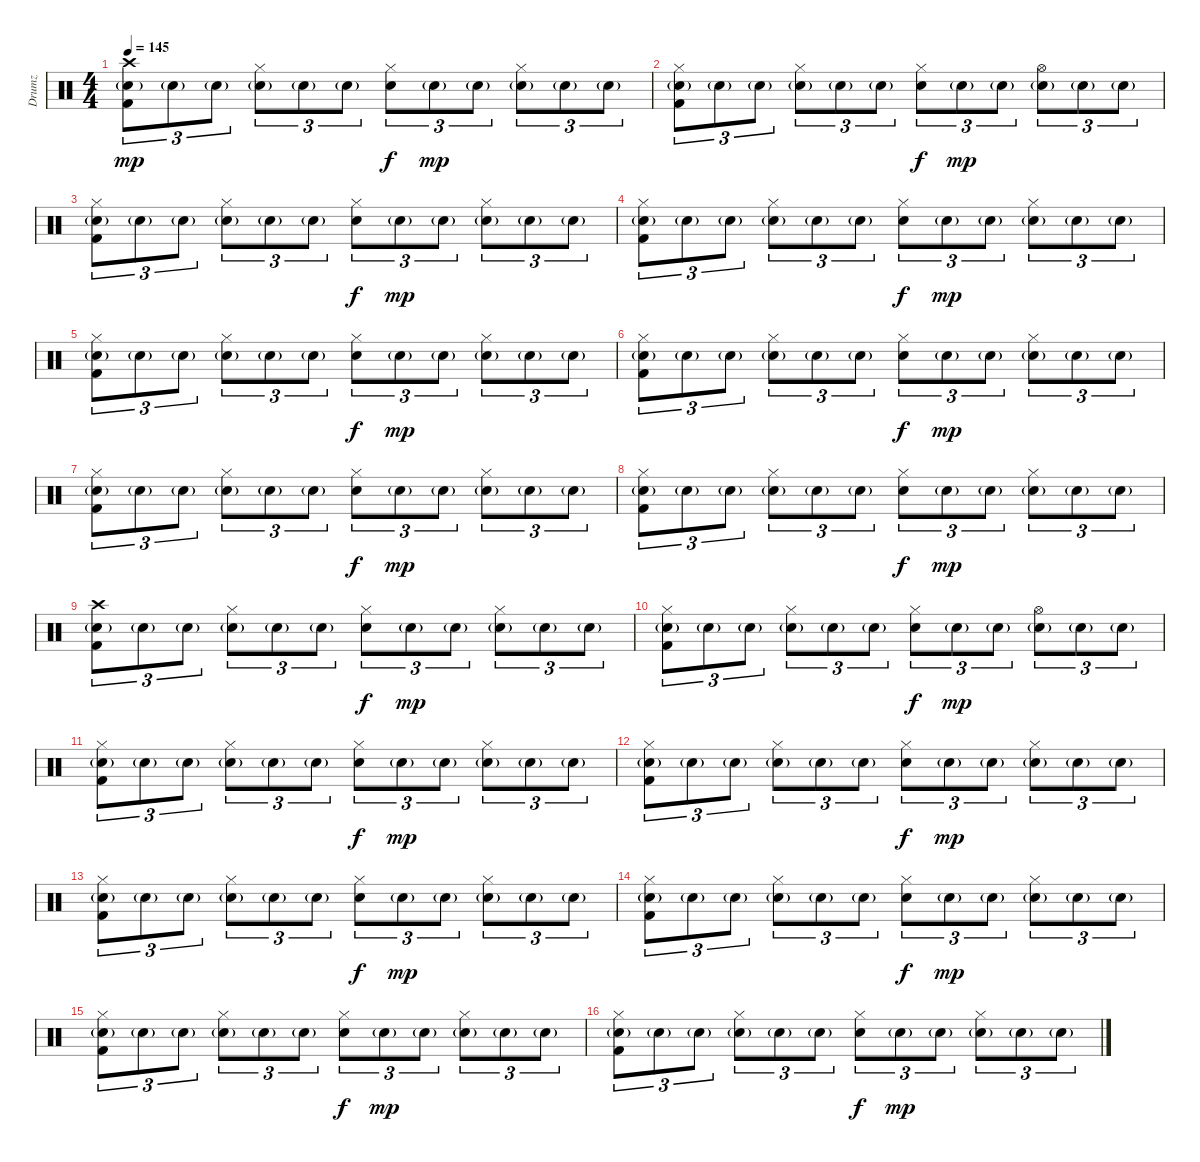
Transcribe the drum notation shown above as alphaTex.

\track ("Drumz" "Drumz") {instrument percussion}
\staff {score}
\articulation defaults
\ts (4 4)
\tempo 145
\clef neutral
\ks c
("Crash high (hit)" "Electric Snare (hit)"{g} "Kick (hit) 2").8{tu (3 2) dy mp} "Electric Snare (hit)"{g}.8{tu (3 2)} "Electric Snare (hit)"{g}.8{tu (3 2)} ("Hi-Hat (closed)" "Electric Snare (hit)"{g}).8{tu (3 2)} "Electric Snare (hit)"{g}.8{tu (3 2)} "Electric Snare (hit)"{g}.8{tu (3 2)} ("Hi-Hat (closed)" "Electric Snare (hit)").8{tu (3 2) dy f} "Electric Snare (hit)"{g}.8{tu (3 2) dy mp} "Electric Snare (hit)"{g}.8{tu (3 2)} ("Hi-Hat (closed)" "Electric Snare (hit)"{g}).8{tu (3 2)} "Electric Snare (hit)"{g}.8{tu (3 2)} "Electric Snare (hit)"{g}.8{tu (3 2)} |
("Hi-Hat (closed)" "Electric Snare (hit)"{g} "Kick (hit) 2").8{tu (3 2)} "Electric Snare (hit)"{g}.8{tu (3 2)} "Electric Snare (hit)"{g}.8{tu (3 2)} ("Hi-Hat (closed)" "Electric Snare (hit)"{g}).8{tu (3 2)} "Electric Snare (hit)"{g}.8{tu (3 2)} "Electric Snare (hit)"{g}.8{tu (3 2)} ("Hi-Hat (closed)" "Electric Snare (hit)").8{tu (3 2) dy f} "Electric Snare (hit)"{g}.8{tu (3 2) dy mp} "Electric Snare (hit)"{g}.8{tu (3 2)} ("Hi-Hat (open)" "Electric Snare (hit)"{g}).8{tu (3 2)} "Electric Snare (hit)"{g}.8{tu (3 2)} "Electric Snare (hit)"{g}.8{tu (3 2)} |
("Hi-Hat (closed)" "Electric Snare (hit)"{g} "Kick (hit) 2").8{tu (3 2)} "Electric Snare (hit)"{g}.8{tu (3 2)} "Electric Snare (hit)"{g}.8{tu (3 2)} ("Hi-Hat (closed)" "Electric Snare (hit)"{g}).8{tu (3 2)} "Electric Snare (hit)"{g}.8{tu (3 2)} "Electric Snare (hit)"{g}.8{tu (3 2)} ("Hi-Hat (closed)" "Electric Snare (hit)").8{tu (3 2) dy f} "Electric Snare (hit)"{g}.8{tu (3 2) dy mp} "Electric Snare (hit)"{g}.8{tu (3 2)} ("Hi-Hat (closed)" "Electric Snare (hit)"{g}).8{tu (3 2)} "Electric Snare (hit)"{g}.8{tu (3 2)} "Electric Snare (hit)"{g}.8{tu (3 2)} |
("Hi-Hat (closed)" "Electric Snare (hit)"{g} "Kick (hit) 2").8{tu (3 2)} "Electric Snare (hit)"{g}.8{tu (3 2)} "Electric Snare (hit)"{g}.8{tu (3 2)} ("Hi-Hat (closed)" "Electric Snare (hit)"{g}).8{tu (3 2)} "Electric Snare (hit)"{g}.8{tu (3 2)} "Electric Snare (hit)"{g}.8{tu (3 2)} ("Hi-Hat (closed)" "Electric Snare (hit)").8{tu (3 2) dy f} "Electric Snare (hit)"{g}.8{tu (3 2) dy mp} "Electric Snare (hit)"{g}.8{tu (3 2)} ("Hi-Hat (closed)" "Electric Snare (hit)"{g}).8{tu (3 2)} "Electric Snare (hit)"{g}.8{tu (3 2)} "Electric Snare (hit)"{g}.8{tu (3 2)} |
("Hi-Hat (closed)" "Electric Snare (hit)"{g} "Kick (hit) 2").8{tu (3 2)} "Electric Snare (hit)"{g}.8{tu (3 2)} "Electric Snare (hit)"{g}.8{tu (3 2)} ("Hi-Hat (closed)" "Electric Snare (hit)"{g}).8{tu (3 2)} "Electric Snare (hit)"{g}.8{tu (3 2)} "Electric Snare (hit)"{g}.8{tu (3 2)} ("Hi-Hat (closed)" "Electric Snare (hit)").8{tu (3 2) dy f} "Electric Snare (hit)"{g}.8{tu (3 2) dy mp} "Electric Snare (hit)"{g}.8{tu (3 2)} ("Hi-Hat (closed)" "Electric Snare (hit)"{g}).8{tu (3 2)} "Electric Snare (hit)"{g}.8{tu (3 2)} "Electric Snare (hit)"{g}.8{tu (3 2)} |
("Hi-Hat (closed)" "Electric Snare (hit)"{g} "Kick (hit) 2").8{tu (3 2)} "Electric Snare (hit)"{g}.8{tu (3 2)} "Electric Snare (hit)"{g}.8{tu (3 2)} ("Hi-Hat (closed)" "Electric Snare (hit)"{g}).8{tu (3 2)} "Electric Snare (hit)"{g}.8{tu (3 2)} "Electric Snare (hit)"{g}.8{tu (3 2)} ("Hi-Hat (closed)" "Electric Snare (hit)").8{tu (3 2) dy f} "Electric Snare (hit)"{g}.8{tu (3 2) dy mp} "Electric Snare (hit)"{g}.8{tu (3 2)} ("Hi-Hat (closed)" "Electric Snare (hit)"{g}).8{tu (3 2)} "Electric Snare (hit)"{g}.8{tu (3 2)} "Electric Snare (hit)"{g}.8{tu (3 2)} |
("Hi-Hat (closed)" "Electric Snare (hit)"{g} "Kick (hit) 2").8{tu (3 2)} "Electric Snare (hit)"{g}.8{tu (3 2)} "Electric Snare (hit)"{g}.8{tu (3 2)} ("Hi-Hat (closed)" "Electric Snare (hit)"{g}).8{tu (3 2)} "Electric Snare (hit)"{g}.8{tu (3 2)} "Electric Snare (hit)"{g}.8{tu (3 2)} ("Hi-Hat (closed)" "Electric Snare (hit)").8{tu (3 2) dy f} "Electric Snare (hit)"{g}.8{tu (3 2) dy mp} "Electric Snare (hit)"{g}.8{tu (3 2)} ("Hi-Hat (closed)" "Electric Snare (hit)"{g}).8{tu (3 2)} "Electric Snare (hit)"{g}.8{tu (3 2)} "Electric Snare (hit)"{g}.8{tu (3 2)} |
("Hi-Hat (closed)" "Electric Snare (hit)"{g} "Kick (hit) 2").8{tu (3 2)} "Electric Snare (hit)"{g}.8{tu (3 2)} "Electric Snare (hit)"{g}.8{tu (3 2)} ("Hi-Hat (closed)" "Electric Snare (hit)"{g}).8{tu (3 2)} "Electric Snare (hit)"{g}.8{tu (3 2)} "Electric Snare (hit)"{g}.8{tu (3 2)} ("Hi-Hat (closed)" "Electric Snare (hit)").8{tu (3 2) dy f} "Electric Snare (hit)"{g}.8{tu (3 2) dy mp} "Electric Snare (hit)"{g}.8{tu (3 2)} ("Hi-Hat (closed)" "Electric Snare (hit)"{g}).8{tu (3 2)} "Electric Snare (hit)"{g}.8{tu (3 2)} "Electric Snare (hit)"{g}.8{tu (3 2)} |
("Crash high (hit)" "Electric Snare (hit)"{g} "Kick (hit) 2").8{tu (3 2)} "Electric Snare (hit)"{g}.8{tu (3 2)} "Electric Snare (hit)"{g}.8{tu (3 2)} ("Hi-Hat (closed)" "Electric Snare (hit)"{g}).8{tu (3 2)} "Electric Snare (hit)"{g}.8{tu (3 2)} "Electric Snare (hit)"{g}.8{tu (3 2)} ("Hi-Hat (closed)" "Electric Snare (hit)").8{tu (3 2) dy f} "Electric Snare (hit)"{g}.8{tu (3 2) dy mp} "Electric Snare (hit)"{g}.8{tu (3 2)} ("Hi-Hat (closed)" "Electric Snare (hit)"{g}).8{tu (3 2)} "Electric Snare (hit)"{g}.8{tu (3 2)} "Electric Snare (hit)"{g}.8{tu (3 2)} |
("Hi-Hat (closed)" "Electric Snare (hit)"{g} "Kick (hit) 2").8{tu (3 2)} "Electric Snare (hit)"{g}.8{tu (3 2)} "Electric Snare (hit)"{g}.8{tu (3 2)} ("Hi-Hat (closed)" "Electric Snare (hit)"{g}).8{tu (3 2)} "Electric Snare (hit)"{g}.8{tu (3 2)} "Electric Snare (hit)"{g}.8{tu (3 2)} ("Hi-Hat (closed)" "Electric Snare (hit)").8{tu (3 2) dy f} "Electric Snare (hit)"{g}.8{tu (3 2) dy mp} "Electric Snare (hit)"{g}.8{tu (3 2)} ("Hi-Hat (open)" "Electric Snare (hit)"{g}).8{tu (3 2)} "Electric Snare (hit)"{g}.8{tu (3 2)} "Electric Snare (hit)"{g}.8{tu (3 2)} |
("Hi-Hat (closed)" "Electric Snare (hit)"{g} "Kick (hit) 2").8{tu (3 2)} "Electric Snare (hit)"{g}.8{tu (3 2)} "Electric Snare (hit)"{g}.8{tu (3 2)} ("Hi-Hat (closed)" "Electric Snare (hit)"{g}).8{tu (3 2)} "Electric Snare (hit)"{g}.8{tu (3 2)} "Electric Snare (hit)"{g}.8{tu (3 2)} ("Hi-Hat (closed)" "Electric Snare (hit)").8{tu (3 2) dy f} "Electric Snare (hit)"{g}.8{tu (3 2) dy mp} "Electric Snare (hit)"{g}.8{tu (3 2)} ("Hi-Hat (closed)" "Electric Snare (hit)"{g}).8{tu (3 2)} "Electric Snare (hit)"{g}.8{tu (3 2)} "Electric Snare (hit)"{g}.8{tu (3 2)} |
("Hi-Hat (closed)" "Electric Snare (hit)"{g} "Kick (hit) 2").8{tu (3 2)} "Electric Snare (hit)"{g}.8{tu (3 2)} "Electric Snare (hit)"{g}.8{tu (3 2)} ("Hi-Hat (closed)" "Electric Snare (hit)"{g}).8{tu (3 2)} "Electric Snare (hit)"{g}.8{tu (3 2)} "Electric Snare (hit)"{g}.8{tu (3 2)} ("Hi-Hat (closed)" "Electric Snare (hit)").8{tu (3 2) dy f} "Electric Snare (hit)"{g}.8{tu (3 2) dy mp} "Electric Snare (hit)"{g}.8{tu (3 2)} ("Hi-Hat (closed)" "Electric Snare (hit)"{g}).8{tu (3 2)} "Electric Snare (hit)"{g}.8{tu (3 2)} "Electric Snare (hit)"{g}.8{tu (3 2)} |
("Hi-Hat (closed)" "Electric Snare (hit)"{g} "Kick (hit) 2").8{tu (3 2)} "Electric Snare (hit)"{g}.8{tu (3 2)} "Electric Snare (hit)"{g}.8{tu (3 2)} ("Hi-Hat (closed)" "Electric Snare (hit)"{g}).8{tu (3 2)} "Electric Snare (hit)"{g}.8{tu (3 2)} "Electric Snare (hit)"{g}.8{tu (3 2)} ("Hi-Hat (closed)" "Electric Snare (hit)").8{tu (3 2) dy f} "Electric Snare (hit)"{g}.8{tu (3 2) dy mp} "Electric Snare (hit)"{g}.8{tu (3 2)} ("Hi-Hat (closed)" "Electric Snare (hit)"{g}).8{tu (3 2)} "Electric Snare (hit)"{g}.8{tu (3 2)} "Electric Snare (hit)"{g}.8{tu (3 2)} |
("Hi-Hat (closed)" "Electric Snare (hit)"{g} "Kick (hit) 2").8{tu (3 2)} "Electric Snare (hit)"{g}.8{tu (3 2)} "Electric Snare (hit)"{g}.8{tu (3 2)} ("Hi-Hat (closed)" "Electric Snare (hit)"{g}).8{tu (3 2)} "Electric Snare (hit)"{g}.8{tu (3 2)} "Electric Snare (hit)"{g}.8{tu (3 2)} ("Hi-Hat (closed)" "Electric Snare (hit)").8{tu (3 2) dy f} "Electric Snare (hit)"{g}.8{tu (3 2) dy mp} "Electric Snare (hit)"{g}.8{tu (3 2)} ("Hi-Hat (closed)" "Electric Snare (hit)"{g}).8{tu (3 2)} "Electric Snare (hit)"{g}.8{tu (3 2)} "Electric Snare (hit)"{g}.8{tu (3 2)} |
("Hi-Hat (closed)" "Electric Snare (hit)"{g} "Kick (hit) 2").8{tu (3 2)} "Electric Snare (hit)"{g}.8{tu (3 2)} "Electric Snare (hit)"{g}.8{tu (3 2)} ("Hi-Hat (closed)" "Electric Snare (hit)"{g}).8{tu (3 2)} "Electric Snare (hit)"{g}.8{tu (3 2)} "Electric Snare (hit)"{g}.8{tu (3 2)} ("Hi-Hat (closed)" "Electric Snare (hit)").8{tu (3 2) dy f} "Electric Snare (hit)"{g}.8{tu (3 2) dy mp} "Electric Snare (hit)"{g}.8{tu (3 2)} ("Hi-Hat (closed)" "Electric Snare (hit)"{g}).8{tu (3 2)} "Electric Snare (hit)"{g}.8{tu (3 2)} "Electric Snare (hit)"{g}.8{tu (3 2)} |
("Hi-Hat (closed)" "Electric Snare (hit)"{g} "Kick (hit) 2").8{tu (3 2)} "Electric Snare (hit)"{g}.8{tu (3 2)} "Electric Snare (hit)"{g}.8{tu (3 2)} ("Hi-Hat (closed)" "Electric Snare (hit)"{g}).8{tu (3 2)} "Electric Snare (hit)"{g}.8{tu (3 2)} "Electric Snare (hit)"{g}.8{tu (3 2)} ("Hi-Hat (closed)" "Electric Snare (hit)").8{tu (3 2) dy f} "Electric Snare (hit)"{g}.8{tu (3 2) dy mp} "Electric Snare (hit)"{g}.8{tu (3 2)} ("Hi-Hat (closed)" "Electric Snare (hit)"{g}).8{tu (3 2)} "Electric Snare (hit)"{g}.8{tu (3 2)} "Electric Snare (hit)"{g}.8{tu (3 2)}
